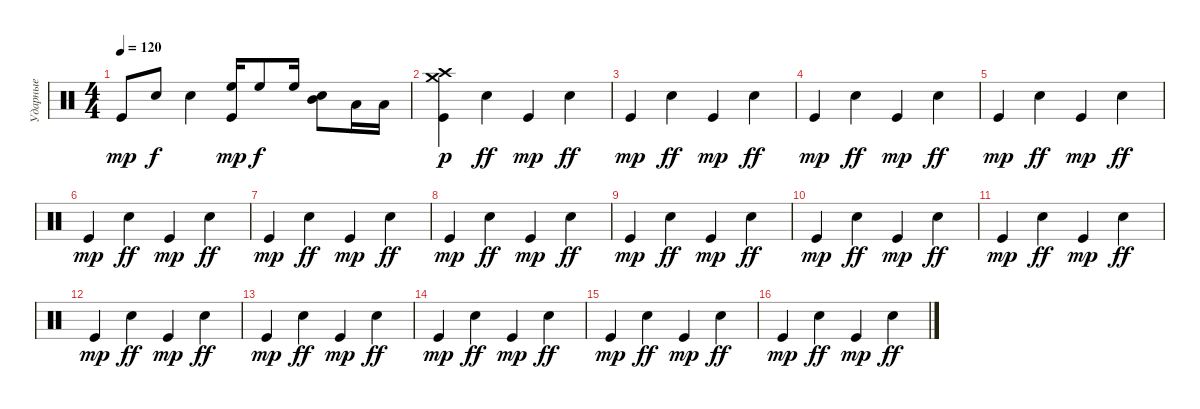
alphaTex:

\track ("Ударные" "Ударные") {instrument percussion}
\staff {score}
\articulation defaults
\ts (4 4)
\tempo 120
\clef neutral
\ks c "Kick (hit)".8{dy mp} "Snare (hit) 2".8{dy f} "Snare (hit) 2".4
("High Floor Tom (hit)" "Kick (hit)").16{dy mp} "High Floor Tom (hit)".8{dy f} "High Floor Tom (hit)".16 ("Mid Tom (hit)" "Snare (hit) 2").8 "Low Tom (hit)".16 "Low Tom (hit)".16 |
("Kick (hit)" "Crash high (hit)" "Crash medium (hit)").4{dy p} "Snare (hit) 2".4{dy ff} "Kick (hit)".4{dy mp} "Snare (hit) 2".4{dy ff} |
"Kick (hit)".4{dy mp} "Snare (hit) 2".4{dy ff} "Kick (hit)".4{dy mp} "Snare (hit) 2".4{dy ff} |
"Kick (hit)".4{dy mp} "Snare (hit) 2".4{dy ff} "Kick (hit)".4{dy mp} "Snare (hit) 2".4{dy ff} |
"Kick (hit)".4{dy mp} "Snare (hit) 2".4{dy ff} "Kick (hit)".4{dy mp} "Snare (hit) 2".4{dy ff} |
"Kick (hit)".4{dy mp} "Snare (hit) 2".4{dy ff} "Kick (hit)".4{dy mp} "Snare (hit) 2".4{dy ff} |
"Kick (hit)".4{dy mp} "Snare (hit) 2".4{dy ff} "Kick (hit)".4{dy mp} "Snare (hit) 2".4{dy ff} |
"Kick (hit)".4{dy mp} "Snare (hit) 2".4{dy ff} "Kick (hit)".4{dy mp} "Snare (hit) 2".4{dy ff} |
"Kick (hit)".4{dy mp} "Snare (hit) 2".4{dy ff} "Kick (hit)".4{dy mp} "Snare (hit) 2".4{dy ff} |
"Kick (hit)".4{dy mp} "Snare (hit) 2".4{dy ff} "Kick (hit)".4{dy mp} "Snare (hit) 2".4{dy ff} |
"Kick (hit)".4{dy mp} "Snare (hit) 2".4{dy ff} "Kick (hit)".4{dy mp} "Snare (hit) 2".4{dy ff} |
"Kick (hit)".4{dy mp} "Snare (hit) 2".4{dy ff} "Kick (hit)".4{dy mp} "Snare (hit) 2".4{dy ff} |
"Kick (hit)".4{dy mp} "Snare (hit) 2".4{dy ff} "Kick (hit)".4{dy mp} "Snare (hit) 2".4{dy ff} |
"Kick (hit)".4{dy mp} "Snare (hit) 2".4{dy ff} "Kick (hit)".4{dy mp} "Snare (hit) 2".4{dy ff} |
"Kick (hit)".4{dy mp} "Snare (hit) 2".4{dy ff} "Kick (hit)".4{dy mp} "Snare (hit) 2".4{dy ff} |
"Kick (hit)".4{dy mp} "Snare (hit) 2".4{dy ff} "Kick (hit)".4{dy mp} "Snare (hit) 2".4{dy ff}
